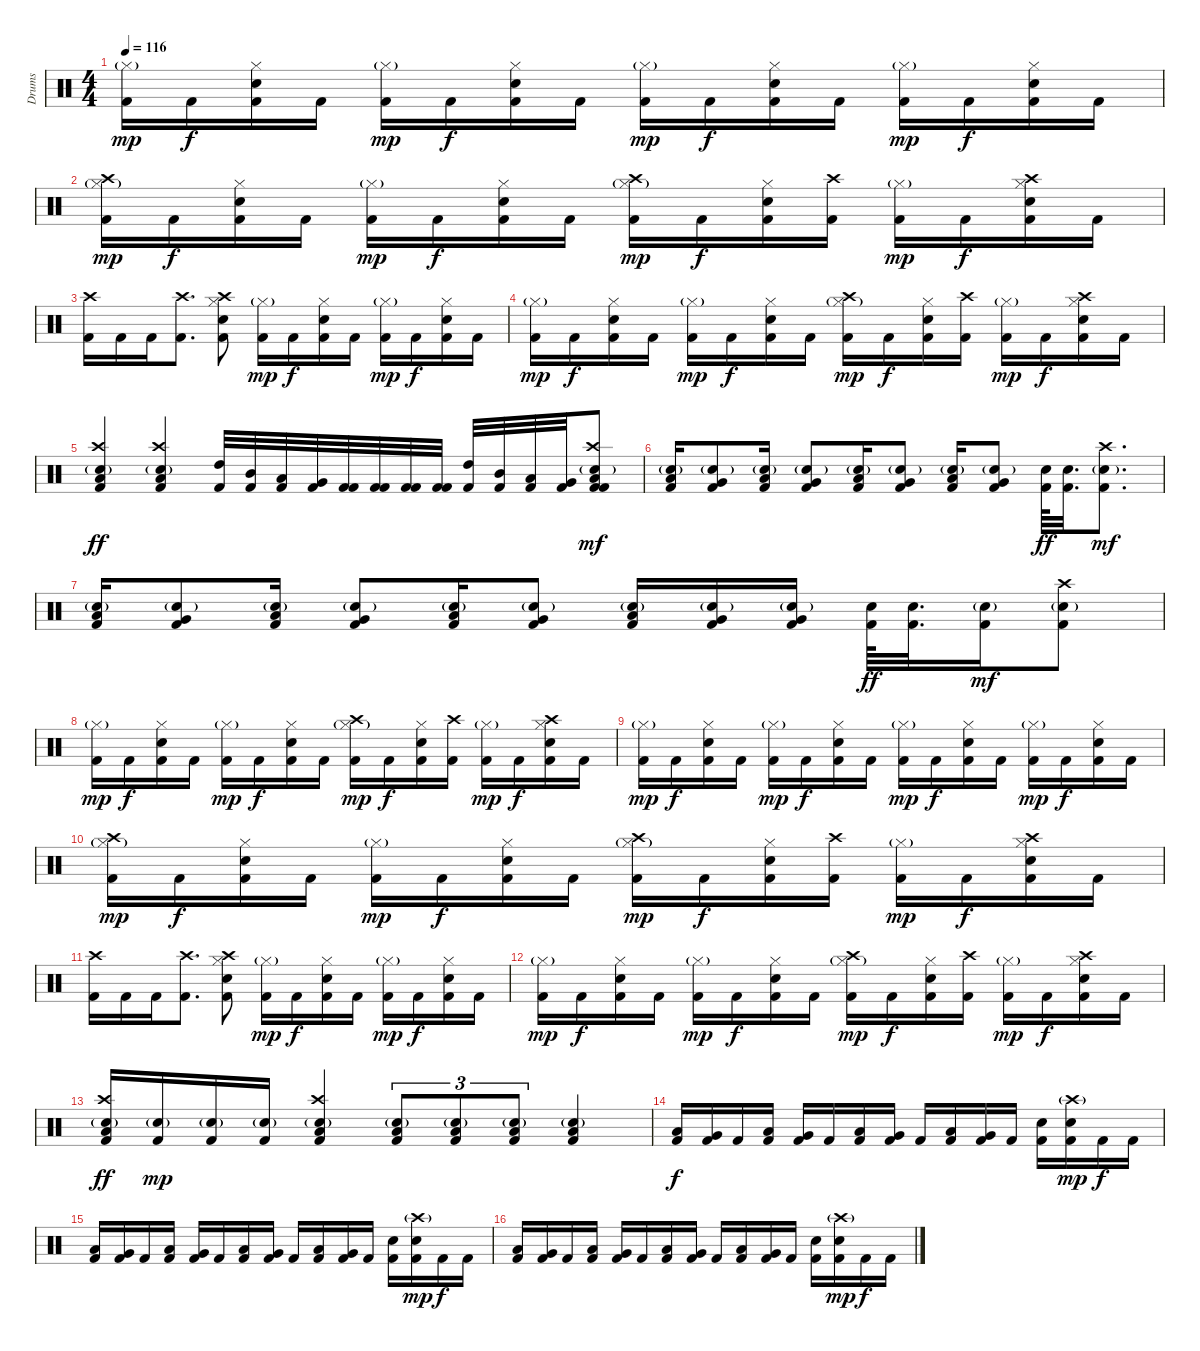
\track ("Drums" "Drums") {instrument percussion}
\staff {score}
\articulation defaults
\ts (4 4)
\tempo 116
\clef neutral
\ks c
("Kick (hit) 2" "Hi-Hat (closed)"{g}).16{dy mp} "Kick (hit) 2".16{dy f} ("Kick (hit) 2" "Electric Snare (hit)" "Hi-Hat (closed)").16 "Kick (hit) 2".16 ("Kick (hit) 2" "Hi-Hat (closed)"{g}).16{dy mp} "Kick (hit) 2".16{dy f} ("Kick (hit) 2" "Electric Snare (hit)" "Hi-Hat (closed)").16 "Kick (hit) 2".16 ("Kick (hit) 2" "Hi-Hat (closed)"{g}).16{dy mp} "Kick (hit) 2".16{dy f} ("Kick (hit) 2" "Electric Snare (hit)" "Hi-Hat (closed)").16 "Kick (hit) 2".16 ("Kick (hit) 2" "Hi-Hat (closed)"{g}).16{dy mp} "Kick (hit) 2".16{dy f} ("Kick (hit) 2" "Electric Snare (hit)" "Hi-Hat (closed)").16 "Kick (hit) 2".16 |
("Kick (hit) 2" "Hi-Hat (closed)"{g} "Crash high (hit)").16{dy mp} "Kick (hit) 2".16{dy f} ("Kick (hit) 2" "Electric Snare (hit)" "Hi-Hat (closed)").16 "Kick (hit) 2".16 ("Kick (hit) 2" "Hi-Hat (closed)"{g}).16{dy mp} "Kick (hit) 2".16{dy f} ("Kick (hit) 2" "Electric Snare (hit)" "Hi-Hat (closed)").16 "Kick (hit) 2".16 ("Kick (hit) 2" "Hi-Hat (closed)"{g} "Crash high (hit)").16{dy mp} "Kick (hit) 2".16{dy f} ("Kick (hit) 2" "Electric Snare (hit)" "Hi-Hat (closed)").16 ("Kick (hit) 2" "Crash high (hit)").16 ("Kick (hit) 2" "Hi-Hat (closed)"{g}).16{dy mp} "Kick (hit) 2".16{dy f} ("Kick (hit) 2" "Electric Snare (hit)" "Hi-Hat (closed)" "Crash high (hit)").16 "Kick (hit) 2".16 |
("Kick (hit) 2" "Crash high (hit)").16 "Kick (hit) 2".16 "Kick (hit) 2".16 ("Kick (hit) 2" "Crash high (hit)").8{d} ("Kick (hit) 2" "Crash high (hit)" "Hi-Hat (closed)" "Electric Snare (hit)").8 ("Kick (hit) 2" "Hi-Hat (closed)"{g}).16{dy mp} "Kick (hit) 2".16{dy f} ("Kick (hit) 2" "Electric Snare (hit)" "Hi-Hat (closed)").16 "Kick (hit) 2".16 ("Kick (hit) 2" "Hi-Hat (closed)"{g}).16{dy mp} "Kick (hit) 2".16{dy f} ("Kick (hit) 2" "Electric Snare (hit)" "Hi-Hat (closed)").16 "Kick (hit) 2".16 |
("Kick (hit) 2" "Hi-Hat (closed)"{g}).16{dy mp} "Kick (hit) 2".16{dy f} ("Kick (hit) 2" "Electric Snare (hit)" "Hi-Hat (closed)").16 "Kick (hit) 2".16 ("Kick (hit) 2" "Hi-Hat (closed)"{g}).16{dy mp} "Kick (hit) 2".16{dy f} ("Kick (hit) 2" "Electric Snare (hit)" "Hi-Hat (closed)").16 "Kick (hit) 2".16 ("Kick (hit) 2" "Hi-Hat (closed)"{g} "Crash high (hit)").16{dy mp} "Kick (hit) 2".16{dy f} ("Kick (hit) 2" "Electric Snare (hit)" "Hi-Hat (closed)").16 ("Kick (hit) 2" "Crash high (hit)").16 ("Kick (hit) 2" "Hi-Hat (closed)"{g}).16{dy mp} "Kick (hit) 2".16{dy f} ("Kick (hit) 2" "Electric Snare (hit)" "Hi-Hat (closed)" "Crash high (hit)").16 "Kick (hit) 2".16 |
("Kick (hit) 2" "Electric Snare (hit)"{g} "Low Tom (hit)" "Crash high (hit)").4{dy ff} ("Kick (hit) 2" "Electric Snare (hit)"{g} "Low Tom (hit)" "Crash high (hit)").4 ("Kick (hit) 2" "High Tom (hit)").32 ("Kick (hit) 2" "Mid Tom (hit)").32 ("Kick (hit) 2" "Low Tom (hit)").32 ("Kick (hit) 2" "Very Low Tom (hit)").32 ("Kick (hit) 2" "Kick (hit) 2").32 ("Kick (hit) 2" "Kick (hit) 2").32 ("Kick (hit) 2" "Kick (hit) 2").32 ("Kick (hit) 2" "Kick (hit) 2").32 ("Kick (hit) 2" "High Tom (hit)").32 ("Kick (hit) 2" "Mid Tom (hit)").32 ("Kick (hit) 2" "Low Tom (hit)").32 ("Kick (hit) 2" "Very Low Tom (hit)").32 ("Kick (hit) 2" "Kick (hit) 2" "Crash high (hit)" "Low Floor Tom (hit)" "Electric Snare (hit)"{g}).8{dy mf} |
("Kick (hit) 2" "Low Tom (hit)" "Electric Snare (hit)"{g}).16 ("Kick (hit) 2" "Very Low Tom (hit)" "Electric Snare (hit)"{g}).8 ("Kick (hit) 2" "Low Tom (hit)" "Electric Snare (hit)"{g}).16 ("Kick (hit) 2" "Very Low Tom (hit)" "Electric Snare (hit)"{g}).8 ("Kick (hit) 2" "Low Tom (hit)" "Electric Snare (hit)"{g}).16 ("Kick (hit) 2" "Very Low Tom (hit)" "Electric Snare (hit)"{g}).8 ("Kick (hit) 2" "Low Tom (hit)" "Electric Snare (hit)"{g}).16 ("Kick (hit) 2" "Very Low Tom (hit)" "Electric Snare (hit)"{g}).8 ("Electric Snare (hit)" "Kick (hit) 2").64{dy ff} ("Electric Snare (hit)" "Kick (hit) 2").32{d} ("Kick (hit) 2" "Crash high (hit)" "Electric Snare (hit)"{g}).8{d dy mf} |
("Kick (hit) 2" "Low Tom (hit)" "Electric Snare (hit)"{g}).16 ("Kick (hit) 2" "Very Low Tom (hit)" "Electric Snare (hit)"{g}).8 ("Kick (hit) 2" "Low Tom (hit)" "Electric Snare (hit)"{g}).16 ("Kick (hit) 2" "Very Low Tom (hit)" "Electric Snare (hit)"{g}).8 ("Kick (hit) 2" "Low Tom (hit)" "Electric Snare (hit)"{g}).16 ("Kick (hit) 2" "Very Low Tom (hit)" "Electric Snare (hit)"{g}).8 ("Kick (hit) 2" "Low Tom (hit)" "Electric Snare (hit)"{g}).16 ("Kick (hit) 2" "Very Low Tom (hit)" "Electric Snare (hit)"{g}).16 ("Kick (hit) 2" "Very Low Tom (hit)" "Electric Snare (hit)"{g}).16 ("Electric Snare (hit)" "Kick (hit) 2").64{dy ff} ("Electric Snare (hit)" "Kick (hit) 2").32{d} ("Kick (hit) 2" "Electric Snare (hit)"{g}).16{dy mf} ("Kick (hit) 2" "Crash high (hit)" "Electric Snare (hit)"{g}).8 |
("Kick (hit) 2" "Hi-Hat (closed)"{g}).16{dy mp} "Kick (hit) 2".16{dy f} ("Kick (hit) 2" "Electric Snare (hit)" "Hi-Hat (closed)").16 "Kick (hit) 2".16 ("Kick (hit) 2" "Hi-Hat (closed)"{g}).16{dy mp} "Kick (hit) 2".16{dy f} ("Kick (hit) 2" "Electric Snare (hit)" "Hi-Hat (closed)").16 "Kick (hit) 2".16 ("Kick (hit) 2" "Hi-Hat (closed)"{g} "Crash high (hit)").16{dy mp} "Kick (hit) 2".16{dy f} ("Kick (hit) 2" "Electric Snare (hit)" "Hi-Hat (closed)").16 ("Kick (hit) 2" "Crash high (hit)").16 ("Kick (hit) 2" "Hi-Hat (closed)"{g}).16{dy mp} "Kick (hit) 2".16{dy f} ("Kick (hit) 2" "Electric Snare (hit)" "Hi-Hat (closed)" "Crash high (hit)").16 "Kick (hit) 2".16 |
("Kick (hit) 2" "Hi-Hat (closed)"{g}).16{dy mp} "Kick (hit) 2".16{dy f} ("Kick (hit) 2" "Electric Snare (hit)" "Hi-Hat (closed)").16 "Kick (hit) 2".16 ("Kick (hit) 2" "Hi-Hat (closed)"{g}).16{dy mp} "Kick (hit) 2".16{dy f} ("Kick (hit) 2" "Electric Snare (hit)" "Hi-Hat (closed)").16 "Kick (hit) 2".16 ("Kick (hit) 2" "Hi-Hat (closed)"{g}).16{dy mp} "Kick (hit) 2".16{dy f} ("Kick (hit) 2" "Electric Snare (hit)" "Hi-Hat (closed)").16 "Kick (hit) 2".16 ("Kick (hit) 2" "Hi-Hat (closed)"{g}).16{dy mp} "Kick (hit) 2".16{dy f} ("Kick (hit) 2" "Electric Snare (hit)" "Hi-Hat (closed)").16 "Kick (hit) 2".16 |
("Kick (hit) 2" "Hi-Hat (closed)"{g} "Crash high (hit)").16{dy mp} "Kick (hit) 2".16{dy f} ("Kick (hit) 2" "Electric Snare (hit)" "Hi-Hat (closed)").16 "Kick (hit) 2".16 ("Kick (hit) 2" "Hi-Hat (closed)"{g}).16{dy mp} "Kick (hit) 2".16{dy f} ("Kick (hit) 2" "Electric Snare (hit)" "Hi-Hat (closed)").16 "Kick (hit) 2".16 ("Kick (hit) 2" "Hi-Hat (closed)"{g} "Crash high (hit)").16{dy mp} "Kick (hit) 2".16{dy f} ("Kick (hit) 2" "Electric Snare (hit)" "Hi-Hat (closed)").16 ("Kick (hit) 2" "Crash high (hit)").16 ("Kick (hit) 2" "Hi-Hat (closed)"{g}).16{dy mp} "Kick (hit) 2".16{dy f} ("Kick (hit) 2" "Electric Snare (hit)" "Hi-Hat (closed)" "Crash high (hit)").16 "Kick (hit) 2".16 |
("Kick (hit) 2" "Crash high (hit)").16 "Kick (hit) 2".16 "Kick (hit) 2".16 ("Kick (hit) 2" "Crash high (hit)").8{d} ("Kick (hit) 2" "Crash high (hit)" "Hi-Hat (closed)" "Electric Snare (hit)").8 ("Kick (hit) 2" "Hi-Hat (closed)"{g}).16{dy mp} "Kick (hit) 2".16{dy f} ("Kick (hit) 2" "Electric Snare (hit)" "Hi-Hat (closed)").16 "Kick (hit) 2".16 ("Kick (hit) 2" "Hi-Hat (closed)"{g}).16{dy mp} "Kick (hit) 2".16{dy f} ("Kick (hit) 2" "Electric Snare (hit)" "Hi-Hat (closed)").16 "Kick (hit) 2".16 |
("Kick (hit) 2" "Hi-Hat (closed)"{g}).16{dy mp} "Kick (hit) 2".16{dy f} ("Kick (hit) 2" "Electric Snare (hit)" "Hi-Hat (closed)").16 "Kick (hit) 2".16 ("Kick (hit) 2" "Hi-Hat (closed)"{g}).16{dy mp} "Kick (hit) 2".16{dy f} ("Kick (hit) 2" "Electric Snare (hit)" "Hi-Hat (closed)").16 "Kick (hit) 2".16 ("Kick (hit) 2" "Hi-Hat (closed)"{g} "Crash high (hit)").16{dy mp} "Kick (hit) 2".16{dy f} ("Kick (hit) 2" "Electric Snare (hit)" "Hi-Hat (closed)").16 ("Kick (hit) 2" "Crash high (hit)").16 ("Kick (hit) 2" "Hi-Hat (closed)"{g}).16{dy mp} "Kick (hit) 2".16{dy f} ("Kick (hit) 2" "Electric Snare (hit)" "Hi-Hat (closed)" "Crash high (hit)").16 "Kick (hit) 2".16 |
("Kick (hit) 2" "Electric Snare (hit)"{g} "Low Tom (hit)" "Crash high (hit)").16{dy ff} ("Kick (hit) 2" "Electric Snare (hit)"{g}).16{dy mp} ("Kick (hit) 2" "Electric Snare (hit)"{g}).16 ("Kick (hit) 2" "Electric Snare (hit)"{g}).16 ("Kick (hit) 2" "Electric Snare (hit)"{g} "Low Tom (hit)" "Crash high (hit)").4 ("Kick (hit) 2" "Electric Snare (hit)"{g} "Low Tom (hit)").8{tu (3 2)} ("Kick (hit) 2" "Electric Snare (hit)"{g} "Low Tom (hit)").8{tu (3 2)} ("Kick (hit) 2" "Electric Snare (hit)"{g} "Low Tom (hit)").8{tu (3 2)} ("Kick (hit) 2" "Electric Snare (hit)"{g} "Low Tom (hit)").4 |
("Kick (hit) 2" "Low Tom (hit)").16{dy f} ("Kick (hit) 2" "Very Low Tom (hit)").16 "Kick (hit) 2".16 ("Kick (hit) 2" "Low Tom (hit)").16 ("Kick (hit) 2" "Very Low Tom (hit)").16 "Kick (hit) 2".16 ("Kick (hit) 2" "Low Tom (hit)").16 ("Kick (hit) 2" "Very Low Tom (hit)").16 "Kick (hit) 2".16 ("Kick (hit) 2" "Low Tom (hit)").16 ("Kick (hit) 2" "Very Low Tom (hit)").16 "Kick (hit) 2".16 ("Kick (hit) 2" "Electric Snare (hit)").16 ("Kick (hit) 2" "Electric Snare (hit)" "Crash high (hit)"{g}).16{dy mp} "Kick (hit) 2".16{dy f} "Kick (hit) 2".16 |
("Kick (hit) 2" "Low Tom (hit)").16 ("Kick (hit) 2" "Very Low Tom (hit)").16 "Kick (hit) 2".16 ("Kick (hit) 2" "Low Tom (hit)").16 ("Kick (hit) 2" "Very Low Tom (hit)").16 "Kick (hit) 2".16 ("Kick (hit) 2" "Low Tom (hit)").16 ("Kick (hit) 2" "Very Low Tom (hit)").16 "Kick (hit) 2".16 ("Kick (hit) 2" "Low Tom (hit)").16 ("Kick (hit) 2" "Very Low Tom (hit)").16 "Kick (hit) 2".16 ("Kick (hit) 2" "Electric Snare (hit)").16 ("Kick (hit) 2" "Electric Snare (hit)" "Crash high (hit)"{g}).16{dy mp} "Kick (hit) 2".16{dy f} "Kick (hit) 2".16 |
("Kick (hit) 2" "Low Tom (hit)").16 ("Kick (hit) 2" "Very Low Tom (hit)").16 "Kick (hit) 2".16 ("Kick (hit) 2" "Low Tom (hit)").16 ("Kick (hit) 2" "Very Low Tom (hit)").16 "Kick (hit) 2".16 ("Kick (hit) 2" "Low Tom (hit)").16 ("Kick (hit) 2" "Very Low Tom (hit)").16 "Kick (hit) 2".16 ("Kick (hit) 2" "Low Tom (hit)").16 ("Kick (hit) 2" "Very Low Tom (hit)").16 "Kick (hit) 2".16 ("Kick (hit) 2" "Electric Snare (hit)").16 ("Kick (hit) 2" "Electric Snare (hit)" "Crash high (hit)"{g}).16{dy mp} "Kick (hit) 2".16{dy f} "Kick (hit) 2".16
